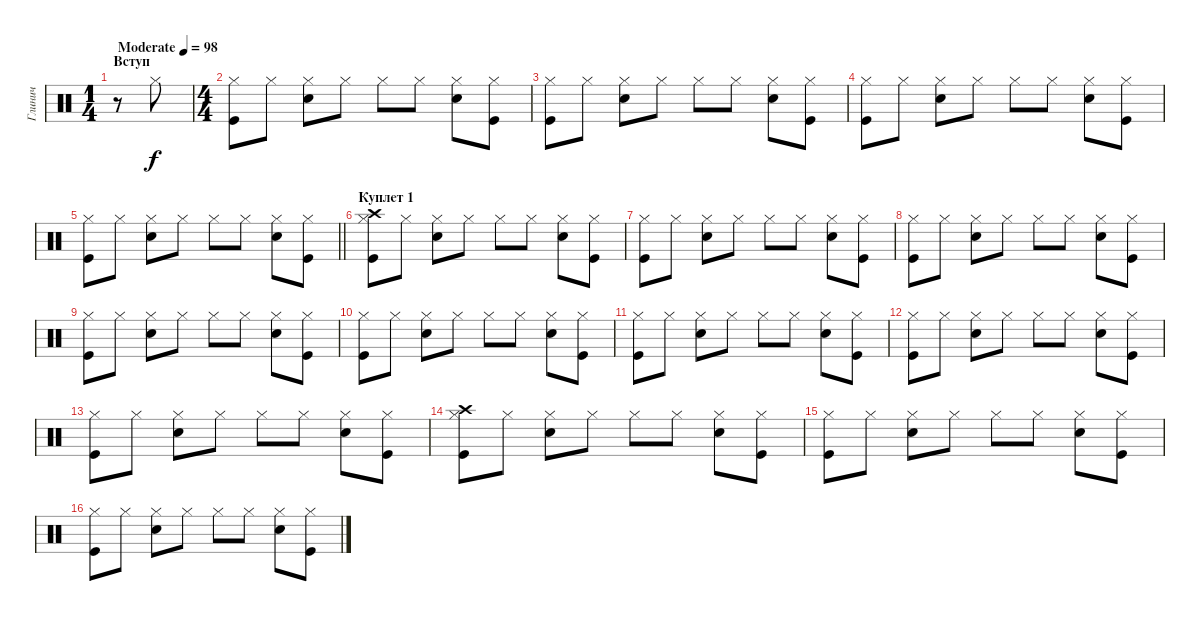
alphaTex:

\track ("Глинич" "Глинич") {instrument percussion}
\staff {score}
\articulation defaults
\ts (1 4)
\section ("" "Вступ")
\tempo (98 "Moderate")
\clef neutral
\ks c
r.8{dy f} "Hi-Hat (closed)".8 |
\ts (4 4)
("Hi-Hat (closed)" "Kick (hit)").8 "Hi-Hat (closed)".8 ("Hi-Hat (closed)" "Snare (hit) 2").8 "Hi-Hat (closed)".8 "Hi-Hat (closed)".8 "Hi-Hat (closed)".8 ("Hi-Hat (closed)" "Snare (hit) 2").8 ("Hi-Hat (closed)" "Kick (hit)").8 |
("Hi-Hat (closed)" "Kick (hit)").8 "Hi-Hat (closed)".8 ("Hi-Hat (closed)" "Snare (hit) 2").8 "Hi-Hat (closed)".8 "Hi-Hat (closed)".8 "Hi-Hat (closed)".8 ("Hi-Hat (closed)" "Snare (hit) 2").8 ("Hi-Hat (closed)" "Kick (hit)").8 |
("Hi-Hat (closed)" "Kick (hit)").8 "Hi-Hat (closed)".8 ("Hi-Hat (closed)" "Snare (hit) 2").8 "Hi-Hat (closed)".8 "Hi-Hat (closed)".8 "Hi-Hat (closed)".8 ("Hi-Hat (closed)" "Snare (hit) 2").8 ("Hi-Hat (closed)" "Kick (hit)").8 |
\barLineRight lightlight
("Hi-Hat (closed)" "Kick (hit)").8 "Hi-Hat (closed)".8 ("Hi-Hat (closed)" "Snare (hit) 2").8 "Hi-Hat (closed)".8 "Hi-Hat (closed)".8 "Hi-Hat (closed)".8 ("Hi-Hat (closed)" "Snare (hit) 2").8 ("Hi-Hat (closed)" "Kick (hit)").8 |
\section ("" "Куплет 1")
("Hi-Hat (closed)" "Kick (hit)" "Crash high (hit)").8 "Hi-Hat (closed)".8 ("Hi-Hat (closed)" "Snare (hit) 2").8 "Hi-Hat (closed)".8 "Hi-Hat (closed)".8 "Hi-Hat (closed)".8 ("Hi-Hat (closed)" "Snare (hit) 2").8 ("Hi-Hat (closed)" "Kick (hit)").8 |
("Hi-Hat (closed)" "Kick (hit)").8 "Hi-Hat (closed)".8 ("Hi-Hat (closed)" "Snare (hit) 2").8 "Hi-Hat (closed)".8 "Hi-Hat (closed)".8 "Hi-Hat (closed)".8 ("Hi-Hat (closed)" "Snare (hit) 2").8 ("Hi-Hat (closed)" "Kick (hit)").8 |
("Hi-Hat (closed)" "Kick (hit)").8 "Hi-Hat (closed)".8 ("Hi-Hat (closed)" "Snare (hit) 2").8 "Hi-Hat (closed)".8 "Hi-Hat (closed)".8 "Hi-Hat (closed)".8 ("Hi-Hat (closed)" "Snare (hit) 2").8 ("Hi-Hat (closed)" "Kick (hit)").8 |
("Hi-Hat (closed)" "Kick (hit)").8 "Hi-Hat (closed)".8 ("Hi-Hat (closed)" "Snare (hit) 2").8 "Hi-Hat (closed)".8 "Hi-Hat (closed)".8 "Hi-Hat (closed)".8 ("Hi-Hat (closed)" "Snare (hit) 2").8 ("Hi-Hat (closed)" "Kick (hit)").8 |
("Hi-Hat (closed)" "Kick (hit)").8 "Hi-Hat (closed)".8 ("Hi-Hat (closed)" "Snare (hit) 2").8 "Hi-Hat (closed)".8 "Hi-Hat (closed)".8 "Hi-Hat (closed)".8 ("Hi-Hat (closed)" "Snare (hit) 2").8 ("Hi-Hat (closed)" "Kick (hit)").8 |
("Hi-Hat (closed)" "Kick (hit)").8 "Hi-Hat (closed)".8 ("Hi-Hat (closed)" "Snare (hit) 2").8 "Hi-Hat (closed)".8 "Hi-Hat (closed)".8 "Hi-Hat (closed)".8 ("Hi-Hat (closed)" "Snare (hit) 2").8 ("Hi-Hat (closed)" "Kick (hit)").8 |
("Hi-Hat (closed)" "Kick (hit)").8 "Hi-Hat (closed)".8 ("Hi-Hat (closed)" "Snare (hit) 2").8 "Hi-Hat (closed)".8 "Hi-Hat (closed)".8 "Hi-Hat (closed)".8 ("Hi-Hat (closed)" "Snare (hit) 2").8 ("Hi-Hat (closed)" "Kick (hit)").8 |
("Hi-Hat (closed)" "Kick (hit)").8 "Hi-Hat (closed)".8 ("Hi-Hat (closed)" "Snare (hit) 2").8 "Hi-Hat (closed)".8 "Hi-Hat (closed)".8 "Hi-Hat (closed)".8 ("Hi-Hat (closed)" "Snare (hit) 2").8 ("Hi-Hat (closed)" "Kick (hit)").8 |
("Hi-Hat (closed)" "Kick (hit)" "Crash high (hit)").8 "Hi-Hat (closed)".8 ("Hi-Hat (closed)" "Snare (hit) 2").8 "Hi-Hat (closed)".8 "Hi-Hat (closed)".8 "Hi-Hat (closed)".8 ("Hi-Hat (closed)" "Snare (hit) 2").8 ("Hi-Hat (closed)" "Kick (hit)").8 |
("Hi-Hat (closed)" "Kick (hit)").8 "Hi-Hat (closed)".8 ("Hi-Hat (closed)" "Snare (hit) 2").8 "Hi-Hat (closed)".8 "Hi-Hat (closed)".8 "Hi-Hat (closed)".8 ("Hi-Hat (closed)" "Snare (hit) 2").8 ("Hi-Hat (closed)" "Kick (hit)").8 |
("Hi-Hat (closed)" "Kick (hit)").8 "Hi-Hat (closed)".8 ("Hi-Hat (closed)" "Snare (hit) 2").8 "Hi-Hat (closed)".8 "Hi-Hat (closed)".8 "Hi-Hat (closed)".8 ("Hi-Hat (closed)" "Snare (hit) 2").8 ("Hi-Hat (closed)" "Kick (hit)").8
